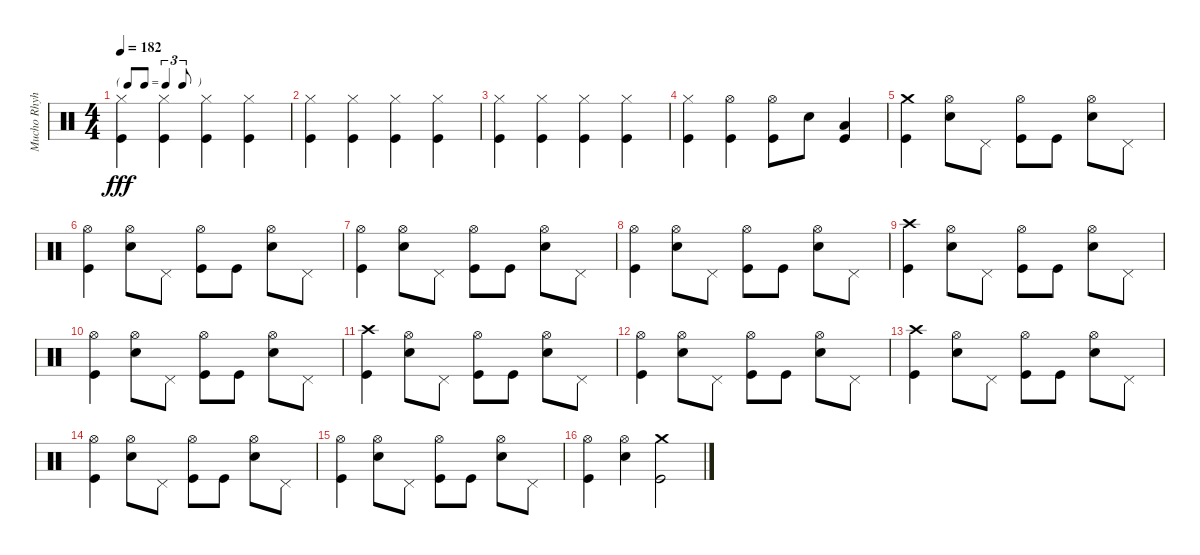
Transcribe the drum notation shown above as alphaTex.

\track ("Mucho Rhyhtm" "Mucho Rhyh") {instrument percussion}
\staff {score}
\articulation defaults
\ts (4 4)
\tf triplet8th
\tempo 182
\clef neutral
\ks c
("Hi-Hat (closed)" "Kick (hit)").4{dy fff} ("Hi-Hat (closed)" "Kick (hit)").4 ("Hi-Hat (closed)" "Kick (hit)").4 ("Hi-Hat (closed)" "Kick (hit)").4 |
("Hi-Hat (closed)" "Kick (hit)").4 ("Hi-Hat (closed)" "Kick (hit)").4 ("Hi-Hat (closed)" "Kick (hit)").4 ("Hi-Hat (closed)" "Kick (hit)").4 |
("Hi-Hat (closed)" "Kick (hit)").4 ("Hi-Hat (closed)" "Kick (hit)").4 ("Hi-Hat (closed)" "Kick (hit)").4 ("Hi-Hat (closed)" "Kick (hit)").4 |
("Hi-Hat (closed)" "Kick (hit)").4 ("Hi-Hat (open)" "Kick (hit)").4 ("Hi-Hat (open)" "Kick (hit)").8 "Snare (hit) 2".8 ("Low Tom (hit)" "Kick (hit)").4 |
("Crash medium (hit)" "Kick (hit)").4 ("Hi-Hat (open)" "Snare (hit) 2").8 "Pedal Hi-Hat (hit)".8 ("Hi-Hat (open)" "Kick (hit)").8 "Kick (hit)".8 ("Hi-Hat (open)" "Snare (hit) 2").8 "Pedal Hi-Hat (hit)".8 |
("Hi-Hat (open)" "Kick (hit)").4 ("Hi-Hat (open)" "Snare (hit) 2").8 "Pedal Hi-Hat (hit)".8 ("Hi-Hat (open)" "Kick (hit)").8 "Kick (hit)".8 ("Hi-Hat (open)" "Snare (hit) 2").8 "Pedal Hi-Hat (hit)".8 |
("Hi-Hat (open)" "Kick (hit)").4 ("Hi-Hat (open)" "Snare (hit) 2").8 "Pedal Hi-Hat (hit)".8 ("Hi-Hat (open)" "Kick (hit)").8 "Kick (hit)".8 ("Hi-Hat (open)" "Snare (hit) 2").8 "Pedal Hi-Hat (hit)".8 |
("Hi-Hat (open)" "Kick (hit)").4 ("Hi-Hat (open)" "Snare (hit) 2").8 "Pedal Hi-Hat (hit)".8 ("Hi-Hat (open)" "Kick (hit)").8 "Kick (hit)".8 ("Hi-Hat (open)" "Snare (hit) 2").8 "Pedal Hi-Hat (hit)".8 |
("Crash high (hit)" "Kick (hit)").4 ("Hi-Hat (open)" "Snare (hit) 2").8 "Pedal Hi-Hat (hit)".8 ("Hi-Hat (open)" "Kick (hit)").8 "Kick (hit)".8 ("Hi-Hat (open)" "Snare (hit) 2").8 "Pedal Hi-Hat (hit)".8 |
("Hi-Hat (open)" "Kick (hit)").4 ("Hi-Hat (open)" "Snare (hit) 2").8 "Pedal Hi-Hat (hit)".8 ("Hi-Hat (open)" "Kick (hit)").8 "Kick (hit)".8 ("Hi-Hat (open)" "Snare (hit) 2").8 "Pedal Hi-Hat (hit)".8 |
("Crash high (hit)" "Kick (hit)").4 ("Hi-Hat (open)" "Snare (hit) 2").8 "Pedal Hi-Hat (hit)".8 ("Hi-Hat (open)" "Kick (hit)").8 "Kick (hit)".8 ("Hi-Hat (open)" "Snare (hit) 2").8 "Pedal Hi-Hat (hit)".8 |
("Hi-Hat (open)" "Kick (hit)").4 ("Hi-Hat (open)" "Snare (hit) 2").8 "Pedal Hi-Hat (hit)".8 ("Hi-Hat (open)" "Kick (hit)").8 "Kick (hit)".8 ("Hi-Hat (open)" "Snare (hit) 2").8 "Pedal Hi-Hat (hit)".8 |
("Crash high (hit)" "Kick (hit)").4 ("Hi-Hat (open)" "Snare (hit) 2").8 "Pedal Hi-Hat (hit)".8 ("Hi-Hat (open)" "Kick (hit)").8 "Kick (hit)".8 ("Hi-Hat (open)" "Snare (hit) 2").8 "Pedal Hi-Hat (hit)".8 |
("Hi-Hat (open)" "Kick (hit)").4 ("Hi-Hat (open)" "Snare (hit) 2").8 "Pedal Hi-Hat (hit)".8 ("Hi-Hat (open)" "Kick (hit)").8 "Kick (hit)".8 ("Hi-Hat (open)" "Snare (hit) 2").8 "Pedal Hi-Hat (hit)".8 |
("Hi-Hat (open)" "Kick (hit)").4 ("Hi-Hat (open)" "Snare (hit) 2").8 "Pedal Hi-Hat (hit)".8 ("Hi-Hat (open)" "Kick (hit)").8 "Kick (hit)".8 ("Hi-Hat (open)" "Snare (hit) 2").8 "Pedal Hi-Hat (hit)".8 |
("Hi-Hat (open)" "Kick (hit)").4 ("Hi-Hat (open)" "Snare (hit) 2").4 ("Crash medium (hit)" "Kick (hit)").2
